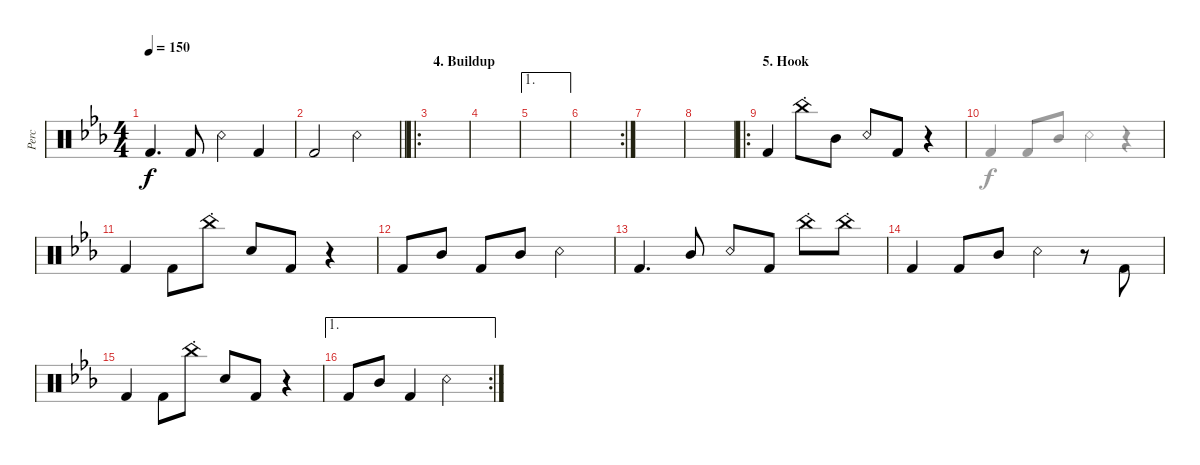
\defaultSystemsLayout 4
\bracketExtendMode groupsimilarinstruments
\otherSystemsTrackNameOrientation horizontal
\track ("Percussion" "Perc") {instrument percussion}
\staff {score}
\articulation defaults
\voice
\ts (4 4)
\scale
0.969233
\tempo 150
\accidentals auto
\clef neutral
\ottava regular
\simile none
\ks cminor "Kick (hit) 2"{acc forcenatural}.4{d dy f beam Up} "Kick (hit) 2"{acc forcenatural}.8{beam Up} "Snare (rim shot)"{acc forcenatural}.4{beam Down} "Kick (hit) 2"{acc forcenatural}.4{beam Up}
|
\scale
0.499528
\barLineRight lightlight "Kick (hit) 2"{acc forcenatural}.2{beam Up} "Snare (rim shot)"{acc forcenatural}.2{beam Down}
|
\ro
\section ("" "4. Buildup")
|
|
\ae 1
|
\rc 2
|
|
|
\ro
\section ("" "5. Hook")
"Kick (hit) 2"{acc forcenatural}.4{beam Up} "China (hit)"{st acc forcenatural}.8{beam Down} "Mid Tom (hit)"{acc forcenatural}.8{beam Down} "Snare (rim shot)"{acc forcenatural}.8{beam Up} "Kick (hit) 2"{acc forcenatural}.8{beam Up} r.4{beam Up} |
|
"Kick (hit) 2"{acc forcenatural}.4{beam Up} "Kick (hit) 2"{acc forcenatural}.8{beam Down} "China (hit)"{st acc forcenatural}.8{beam Down} "Snare (hit) 2"{acc forcenatural}.8{beam Up} "Kick (hit) 2"{acc forcenatural}.8{beam Up} r.4{beam Up} |
"Kick (hit) 2"{acc forcenatural}.8{beam Up} "Mid Tom (hit)"{acc forcenatural}.8{beam Up} "Kick (hit) 2"{acc forcenatural}.8{beam Up} "Mid Tom (hit)"{acc forcenatural}.8{beam Up} "Snare (rim shot)"{acc forcenatural}.2{beam Down} |
"Kick (hit) 2"{acc forcenatural}.4{d beam Up} "Mid Tom (hit)"{acc forcenatural}.8{beam Up} "Snare (rim shot)"{acc forcenatural}.8{beam Up} "Kick (hit) 2"{acc forcenatural}.8{beam Up} "China (hit)"{st acc forcenatural}.8{beam Down} "China (hit)"{st acc forcenatural}.8{beam Down} |
"Kick (hit) 2"{acc forcenatural}.4{beam Up} "Kick (hit) 2"{acc forcenatural}.8{beam Up} "Mid Tom (hit)"{acc forcenatural}.8{beam Up} "Snare (rim shot)"{acc forcenatural}.4{beam Down} r.8{beam Down} "Kick (hit) 2"{acc forcenatural}.8{beam Up} |
"Kick (hit) 2"{acc forcenatural}.4{beam Up} "Kick (hit) 2"{acc forcenatural}.8{beam Down} "China (hit)"{st acc forcenatural}.8{beam Down} "Snare (hit) 2"{acc forcenatural}.8{beam Up} "Kick (hit) 2"{acc forcenatural}.8{beam Up} r.4{beam Up} |
\ae 1
\rc 2 "Kick (hit) 2"{acc forcenatural}.8{beam Up} "Mid Tom (hit)"{acc forcenatural}.8{beam Up} "Kick (hit) 2"{acc forcenatural}.4{beam Up} "Snare (rim shot)"{acc forcenatural}.2{beam Down}
\voice
\clef neutral
\ottava regular
\simile none
\ks cminor
|
\barLineRight lightlight
|
|
|
|
|
|
|
|
"Kick (hit) 2"{acc forcenatural}.4{beam Up} "Kick (hit) 2"{acc forcenatural}.8{beam Up} "Mid Tom (hit)"{acc forcenatural}.8{beam Up} "Snare (rim shot)"{acc forcenatural}.4{beam Down} r.4{beam Down} |
|
|
|
|
|
